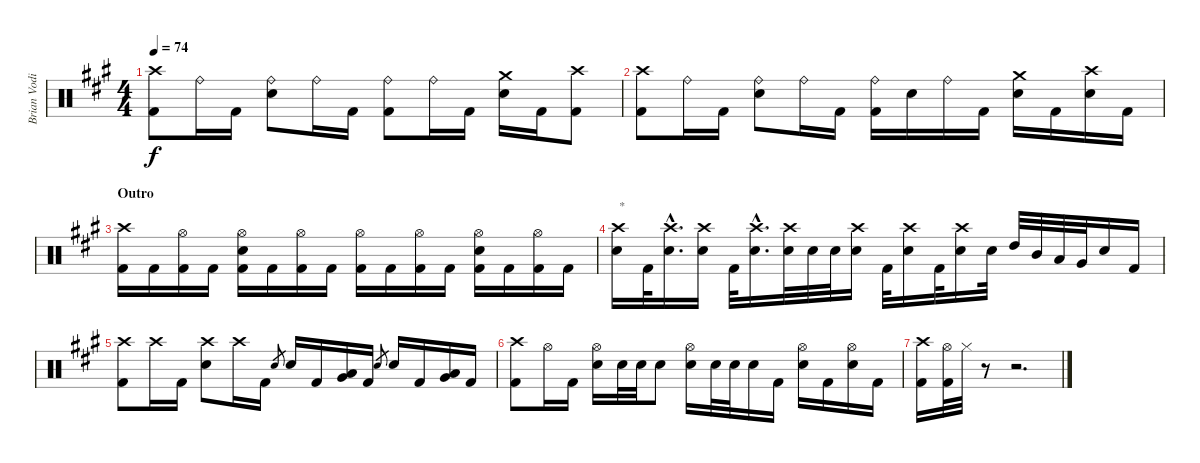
\track ("Brian Vodinh" "Brian Vodi") {instrument percussion}
\staff {score}
\articulation defaults
\ts (4 4)
\tempo 74
\clef neutral
\ks f#minor
("Crash high (hit)" "Kick (hit) 2").8{dy f} "Ride (bell)".16 "Kick (hit) 2".16 ("Ride (bell)" "Electric Snare (hit)").8 "Ride (bell)".16 "Kick (hit) 2".16 ("Ride (bell)" "Kick (hit) 2").8 "Ride (bell)".16 "Kick (hit) 2".16 ("Crash medium (hit)" "Electric Snare (hit)").16 "Kick (hit) 2".16 ("Crash high (hit)" "Kick (hit) 2").8 |
("Crash high (hit)" "Kick (hit) 2").8 "Ride (bell)".16 "Kick (hit) 2".16 ("Ride (bell)" "Electric Snare (hit)").8 "Ride (bell)".16 "Kick (hit) 2".16 ("Ride (bell)" "Kick (hit) 2").16 "Electric Snare (hit)".16 "Ride (bell)".16 "Kick (hit) 2".16 ("Crash medium (hit)" "Electric Snare (hit)").16 "Kick (hit) 2".16 ("Crash high (hit)" "Electric Snare (hit)").16 "Kick (hit) 2".16 |
\section ("" "Outro")
("Crash high (hit)" "Kick (hit) 2").16 "Kick (hit) 2".16 ("Hi-Hat (open)" "Kick (hit) 2").16 "Kick (hit) 2".16 ("Hi-Hat (open)" "Electric Snare (hit)" "Kick (hit) 2").16 "Kick (hit) 2".16 ("Hi-Hat (open)" "Kick (hit) 2").16 "Kick (hit) 2".16 ("Hi-Hat (open)" "Kick (hit) 2").16 "Kick (hit) 2".16 ("Hi-Hat (open)" "Kick (hit) 2").16 "Kick (hit) 2".16 ("Hi-Hat (open)" "Electric Snare (hit)" "Kick (hit) 2").16 "Kick (hit) 2".16 ("Hi-Hat (open)" "Kick (hit) 2").16 "Kick (hit) 2".16 |
("Crash high (hit)" "Electric Snare (hit)").16{txt "*"} "Kick (hit) 2".32 ("Crash high (hit)"{hac} "Electric Snare (hit)"{hac}).16{d} ("Crash high (hit)" "Electric Snare (hit)").16 "Kick (hit) 2".32 ("Crash high (hit)"{hac} "Electric Snare (hit)"{hac}).16{d} ("Crash high (hit)" "Electric Snare (hit)").32 "Electric Snare (hit)".32 "Electric Snare (hit)".32 ("Crash high (hit)" "Electric Snare (hit)").16 "Kick (hit) 2".32 ("Crash high (hit)" "Electric Snare (hit)").16 "Kick (hit) 2".32 ("Crash high (hit)" "Electric Snare (hit)").16 "Electric Snare (hit)".32 "High Tom (hit)".32 "Mid Tom (hit)".32 "Low Tom (hit)".32 "Very Low Tom (hit)".32 "Electric Snare (hit)".16 "Kick (hit) 2".16 |
("Crash high (hit)" "Kick (hit) 2").8 "Crash high (hit)".16 "Kick (hit) 2".16 ("Crash high (hit)" "Electric Snare (hit)").8 "Crash high (hit)".16 "Kick (hit) 2".16 "Electric Snare (hit)".8{gr} "Electric Snare (hit)".16 "Kick (hit) 2".16 ("Low Tom (hit)" "Very Low Tom (hit)").16 "Kick (hit) 2".16 "Electric Snare (hit)".8{gr} "Electric Snare (hit)".16 "Kick (hit) 2".16 ("Very Low Tom (hit)" "Low Floor Tom (hit)").16 "Kick (hit) 2".16 |
("Crash high (hit)" "Kick (hit) 2").8 "Hi-Hat (open)".16 "Kick (hit) 2".16 ("Hi-Hat (open)" "Electric Snare (hit)").16 "Electric Snare (hit)".32 "Electric Snare (hit)".32 "Electric Snare (hit)".8 ("Hi-Hat (open)" "Electric Snare (hit)").16 "Electric Snare (hit)".32 "Electric Snare (hit)".32 "Electric Snare (hit)".16 "Kick (hit) 2".16 ("Hi-Hat (open)" "Electric Snare (hit)").16 "Kick (hit) 2".16 ("Hi-Hat (open)" "Electric Snare (hit)").16 "Kick (hit) 2".16 |
("Crash high (hit)" "Kick (hit) 2").16 ("Hi-Hat (open)" "Kick (hit) 2").32 "Hi-Hat (closed)".32 r.8 r.2{d}
